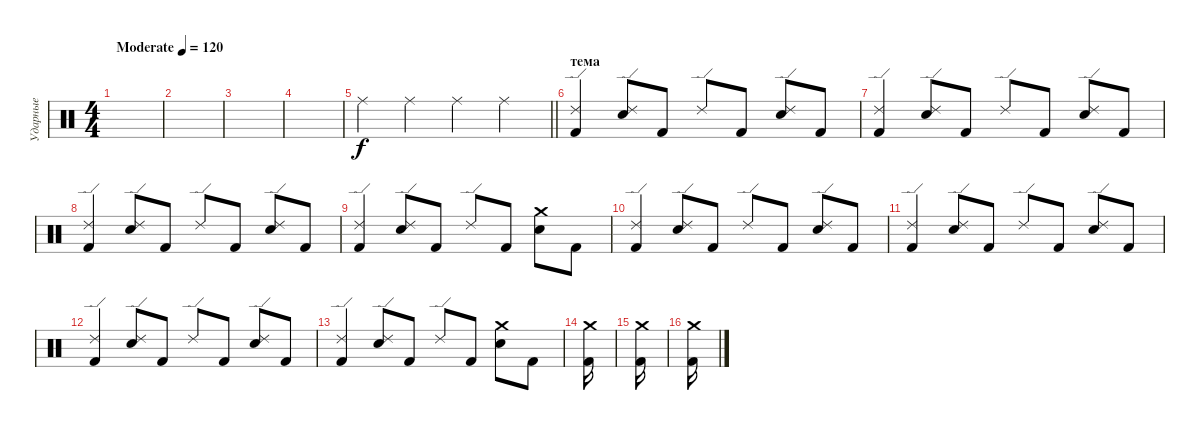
\track ("Ударные" "Ударные") {instrument percussion}
\staff {score}
\articulation defaults
\ts (4 4)
\tempo (120 "Moderate")
\clef neutral
\ks c
|
|
|
|
\barLineRight lightlight "Ride (middle)".4 "Ride (middle)".4 "Ride (middle)".4 "Ride (middle)".4
|
\section ("" "тема")
("Kick (hit) 2" "Ride (edge) 2").4 ("Electric Snare (hit)" "Ride (edge) 2").8 "Kick (hit) 2".8 "Ride (edge) 2".8 "Kick (hit) 2".8 ("Electric Snare (hit)" "Ride (edge) 2").8 "Kick (hit) 2".8 |
("Kick (hit) 2" "Ride (edge) 2").4 ("Electric Snare (hit)" "Ride (edge) 2").8 "Kick (hit) 2".8 "Ride (edge) 2".8 "Kick (hit) 2".8 ("Electric Snare (hit)" "Ride (edge) 2").8 "Kick (hit) 2".8 |
("Kick (hit) 2" "Ride (edge) 2").4 ("Electric Snare (hit)" "Ride (edge) 2").8 "Kick (hit) 2".8 "Ride (edge) 2".8 "Kick (hit) 2".8 ("Electric Snare (hit)" "Ride (edge) 2").8 "Kick (hit) 2".8 |
("Kick (hit) 2" "Ride (edge) 2").4 ("Electric Snare (hit)" "Ride (edge) 2").8 "Kick (hit) 2".8 "Ride (edge) 2".8 "Kick (hit) 2".8 ("Electric Snare (hit)" "Crash medium (hit)").8 "Kick (hit) 2".8 |
("Kick (hit) 2" "Ride (edge) 2").4 ("Electric Snare (hit)" "Ride (edge) 2").8 "Kick (hit) 2".8 "Ride (edge) 2".8 "Kick (hit) 2".8 ("Electric Snare (hit)" "Ride (edge) 2").8 "Kick (hit) 2".8 |
("Kick (hit) 2" "Ride (edge) 2").4 ("Electric Snare (hit)" "Ride (edge) 2").8 "Kick (hit) 2".8 "Ride (edge) 2".8 "Kick (hit) 2".8 ("Electric Snare (hit)" "Ride (edge) 2").8 "Kick (hit) 2".8 |
("Kick (hit) 2" "Ride (edge) 2").4 ("Electric Snare (hit)" "Ride (edge) 2").8 "Kick (hit) 2".8 "Ride (edge) 2".8 "Kick (hit) 2".8 ("Electric Snare (hit)" "Ride (edge) 2").8 "Kick (hit) 2".8 |
("Kick (hit) 2" "Ride (edge) 2").4 ("Electric Snare (hit)" "Ride (edge) 2").8 "Kick (hit) 2".8 "Ride (edge) 2".8 "Kick (hit) 2".8 ("Electric Snare (hit)" "Crash medium (hit)").8 "Kick (hit) 2".8 |
("Kick (hit) 2" "Crash medium (hit)").16 |
("Kick (hit) 2" "Crash medium (hit)").16 |
("Kick (hit) 2" "Crash medium (hit)").16
